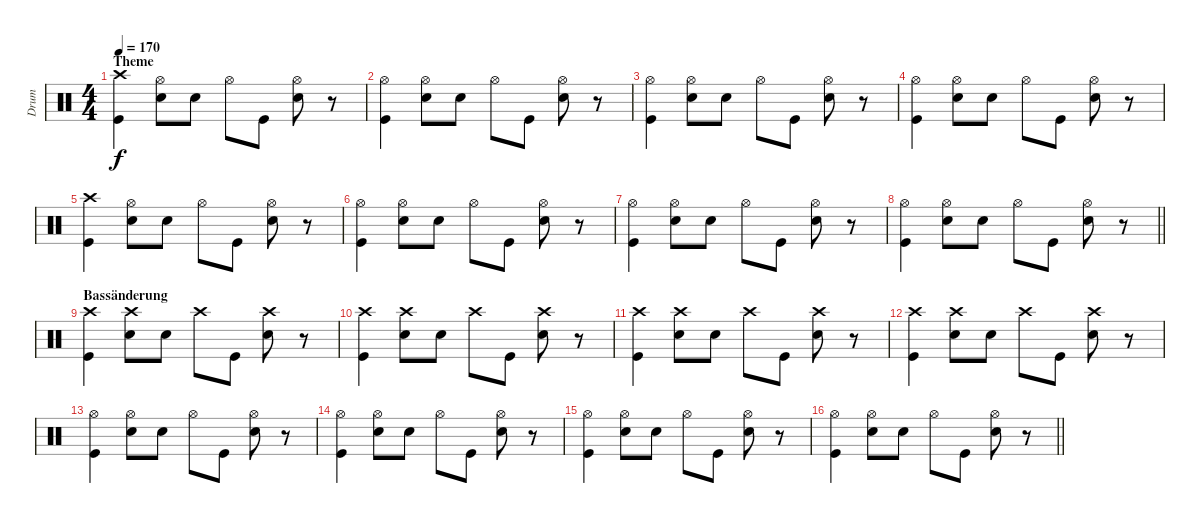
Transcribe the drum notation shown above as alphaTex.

\track ("Drum" "Drum") {instrument percussion}
\staff {score}
\articulation defaults
\ts (4 4)
\section ("" "Theme")
\tempo 170
\clef neutral
\ks c
("Kick (hit)" "Crash high (hit)").4{dy f} ("Snare (hit) 2" "Hi-Hat (open)").8 "Snare (hit) 2".8 "Hi-Hat (open)".8 "Kick (hit)".8 ("Snare (hit) 2" "Hi-Hat (open)").8 r.8 |
("Kick (hit)" "Hi-Hat (open)").4 ("Snare (hit) 2" "Hi-Hat (open)").8 "Snare (hit) 2".8 "Hi-Hat (open)".8 "Kick (hit)".8 ("Snare (hit) 2" "Hi-Hat (open)").8 r.8 |
("Kick (hit)" "Hi-Hat (open)").4 ("Snare (hit) 2" "Hi-Hat (open)").8 "Snare (hit) 2".8 "Hi-Hat (open)".8 "Kick (hit)".8 ("Snare (hit) 2" "Hi-Hat (open)").8 r.8 |
("Kick (hit)" "Hi-Hat (open)").4 ("Snare (hit) 2" "Hi-Hat (open)").8 "Snare (hit) 2".8 "Hi-Hat (open)".8 "Kick (hit)".8 ("Snare (hit) 2" "Hi-Hat (open)").8 r.8 |
("Kick (hit)" "Crash high (hit)").4 ("Snare (hit) 2" "Hi-Hat (open)").8 "Snare (hit) 2".8 "Hi-Hat (open)".8 "Kick (hit)".8 ("Snare (hit) 2" "Hi-Hat (open)").8 r.8 |
("Kick (hit)" "Hi-Hat (open)").4 ("Snare (hit) 2" "Hi-Hat (open)").8 "Snare (hit) 2".8 "Hi-Hat (open)".8 "Kick (hit)".8 ("Snare (hit) 2" "Hi-Hat (open)").8 r.8 |
("Kick (hit)" "Hi-Hat (open)").4 ("Snare (hit) 2" "Hi-Hat (open)").8 "Snare (hit) 2".8 "Hi-Hat (open)".8 "Kick (hit)".8 ("Snare (hit) 2" "Hi-Hat (open)").8 r.8 |
\barLineRight lightlight
("Kick (hit)" "Hi-Hat (open)").4 ("Snare (hit) 2" "Hi-Hat (open)").8 "Snare (hit) 2".8 "Hi-Hat (open)".8 "Kick (hit)".8 ("Snare (hit) 2" "Hi-Hat (open)").8 r.8 |
\section ("" "Bassänderung")
("Kick (hit)" "Crash high (hit)").4 ("Snare (hit) 2" "Crash high (hit)").8 "Snare (hit) 2".8 "Crash high (hit)".8 "Kick (hit)".8 ("Snare (hit) 2" "Crash high (hit)").8 r.8 |
("Kick (hit)" "Crash high (hit)").4 ("Snare (hit) 2" "Crash high (hit)").8 "Snare (hit) 2".8 "Crash high (hit)".8 "Kick (hit)".8 ("Snare (hit) 2" "Crash high (hit)").8 r.8 |
("Kick (hit)" "Crash high (hit)").4 ("Snare (hit) 2" "Crash high (hit)").8 "Snare (hit) 2".8 "Crash high (hit)".8 "Kick (hit)".8 ("Snare (hit) 2" "Crash high (hit)").8 r.8 |
("Kick (hit)" "Crash high (hit)").4 ("Snare (hit) 2" "Crash high (hit)").8 "Snare (hit) 2".8 "Crash high (hit)".8 "Kick (hit)".8 ("Snare (hit) 2" "Crash high (hit)").8 r.8 |
("Kick (hit)" "Hi-Hat (open)").4 ("Snare (hit) 2" "Hi-Hat (open)").8 "Snare (hit) 2".8 "Hi-Hat (open)".8 "Kick (hit)".8 ("Snare (hit) 2" "Hi-Hat (open)").8 r.8 |
("Kick (hit)" "Hi-Hat (open)").4 ("Snare (hit) 2" "Hi-Hat (open)").8 "Snare (hit) 2".8 "Hi-Hat (open)".8 "Kick (hit)".8 ("Snare (hit) 2" "Hi-Hat (open)").8 r.8 |
("Kick (hit)" "Hi-Hat (open)").4 ("Snare (hit) 2" "Hi-Hat (open)").8 "Snare (hit) 2".8 "Hi-Hat (open)".8 "Kick (hit)".8 ("Snare (hit) 2" "Hi-Hat (open)").8 r.8 |
\barLineRight lightlight
("Kick (hit)" "Hi-Hat (open)").4 ("Snare (hit) 2" "Hi-Hat (open)").8 "Snare (hit) 2".8 "Hi-Hat (open)".8 "Kick (hit)".8 ("Snare (hit) 2" "Hi-Hat (open)").8 r.8
